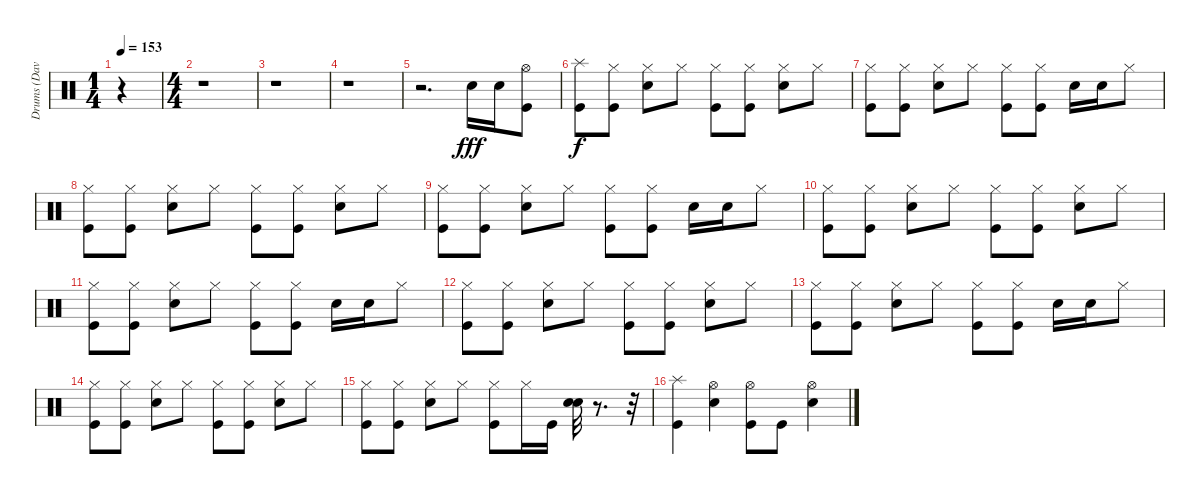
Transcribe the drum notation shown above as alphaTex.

\track ("Drums (Dave)" "Drums (Dav") {instrument percussion}
\staff {score}
\articulation defaults
\ts (1 4)
\tempo 153
\clef neutral
\ks c
r.4{dy fff} |
\ts (4 4)
r.1 |
r.1 |
r.1 |
r.2{d} "Snare (hit) 2".16 "Snare (hit) 2".16 ("Hi-Hat (open)" "Kick (hit)").8 |
("Splash (hit)" "Kick (hit)").8{dy f} ("Hi-Hat (closed)" "Kick (hit)").8 ("Hi-Hat (closed)" "Snare (hit) 2").8 "Hi-Hat (closed)".8 ("Hi-Hat (closed)" "Kick (hit)").8 ("Hi-Hat (closed)" "Kick (hit)").8 ("Hi-Hat (closed)" "Snare (hit) 2").8 "Hi-Hat (closed)".8 |
("Hi-Hat (closed)" "Kick (hit)").8 ("Hi-Hat (closed)" "Kick (hit)").8 ("Hi-Hat (closed)" "Snare (hit) 2").8 "Hi-Hat (closed)".8 ("Hi-Hat (closed)" "Kick (hit)").8 ("Hi-Hat (closed)" "Kick (hit)").8 "Snare (hit) 2".16 "Snare (hit) 2".16 "Hi-Hat (closed)".8 |
("Hi-Hat (closed)" "Kick (hit)").8 ("Hi-Hat (closed)" "Kick (hit)").8 ("Hi-Hat (closed)" "Snare (hit) 2").8 "Hi-Hat (closed)".8 ("Hi-Hat (closed)" "Kick (hit)").8 ("Hi-Hat (closed)" "Kick (hit)").8 ("Hi-Hat (closed)" "Snare (hit) 2").8 "Hi-Hat (closed)".8 |
("Hi-Hat (closed)" "Kick (hit)").8 ("Hi-Hat (closed)" "Kick (hit)").8 ("Hi-Hat (closed)" "Snare (hit) 2").8 "Hi-Hat (closed)".8 ("Hi-Hat (closed)" "Kick (hit)").8 ("Hi-Hat (closed)" "Kick (hit)").8 "Snare (hit) 2".16 "Snare (hit) 2".16 "Hi-Hat (closed)".8 |
("Hi-Hat (closed)" "Kick (hit)").8 ("Hi-Hat (closed)" "Kick (hit)").8 ("Hi-Hat (closed)" "Snare (hit) 2").8 "Hi-Hat (closed)".8 ("Hi-Hat (closed)" "Kick (hit)").8 ("Hi-Hat (closed)" "Kick (hit)").8 ("Hi-Hat (closed)" "Snare (hit) 2").8 "Hi-Hat (closed)".8 |
("Hi-Hat (closed)" "Kick (hit)").8 ("Hi-Hat (closed)" "Kick (hit)").8 ("Hi-Hat (closed)" "Snare (hit) 2").8 "Hi-Hat (closed)".8 ("Hi-Hat (closed)" "Kick (hit)").8 ("Hi-Hat (closed)" "Kick (hit)").8 "Snare (hit) 2".16 "Snare (hit) 2".16 "Hi-Hat (closed)".8 |
("Hi-Hat (closed)" "Kick (hit)").8 ("Hi-Hat (closed)" "Kick (hit)").8 ("Hi-Hat (closed)" "Snare (hit) 2").8 "Hi-Hat (closed)".8 ("Hi-Hat (closed)" "Kick (hit)").8 ("Hi-Hat (closed)" "Kick (hit)").8 ("Hi-Hat (closed)" "Snare (hit) 2").8 "Hi-Hat (closed)".8 |
("Hi-Hat (closed)" "Kick (hit)").8 ("Hi-Hat (closed)" "Kick (hit)").8 ("Hi-Hat (closed)" "Snare (hit) 2").8 "Hi-Hat (closed)".8 ("Hi-Hat (closed)" "Kick (hit)").8 ("Hi-Hat (closed)" "Kick (hit)").8 "Snare (hit) 2".16 "Snare (hit) 2".16 "Hi-Hat (closed)".8 |
("Hi-Hat (closed)" "Kick (hit)").8 ("Hi-Hat (closed)" "Kick (hit)").8 ("Hi-Hat (closed)" "Snare (hit) 2").8 "Hi-Hat (closed)".8 ("Hi-Hat (closed)" "Kick (hit)").8 ("Hi-Hat (closed)" "Kick (hit)").8 ("Hi-Hat (closed)" "Snare (hit) 2").8 "Hi-Hat (closed)".8 |
("Hi-Hat (closed)" "Kick (hit)").8 ("Hi-Hat (closed)" "Kick (hit)").8 ("Hi-Hat (closed)" "Snare (hit) 2").8 "Hi-Hat (closed)".8 ("Hi-Hat (closed)" "Kick (hit)").8 "Hi-Hat (closed)".16 "Kick (hit)".16 ("Snare (hit) 2" "Snare (hit) 2").32 r.8{d} r.32 |
("Splash (hit)" "Kick (hit)").4 ("Hi-Hat (open)" "Snare (hit) 2").4 ("Hi-Hat (open)" "Kick (hit)").8 "Kick (hit)".8 ("Hi-Hat (open)" "Snare (hit) 2").4
